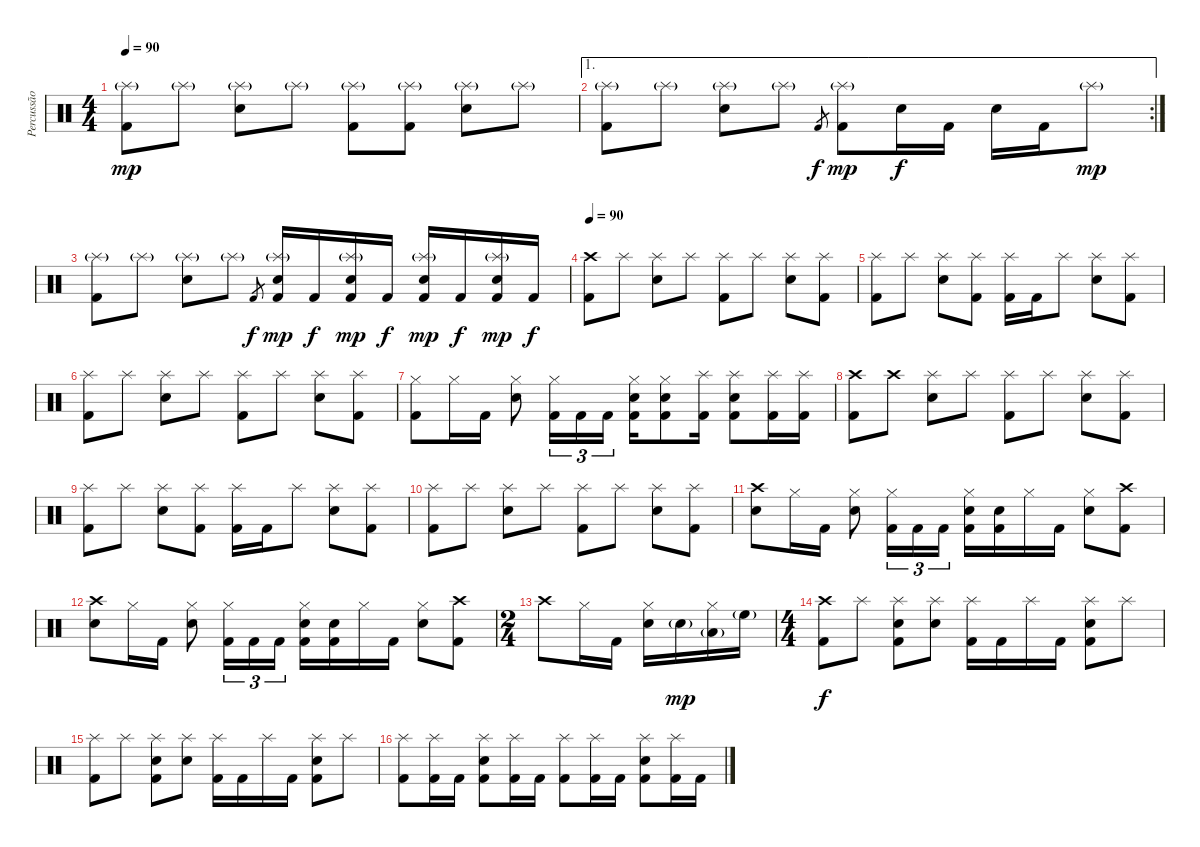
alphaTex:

\track ("Percussão" "Percussão") {instrument percussion}
\staff {score}
\articulation defaults
\ts (4 4)
\tempo 90
\clef neutral
\ks c
("Kick (hit) 2" "Splash (hit)"{g}).8{dy mp} "Splash (hit)"{g}.8 ("Snare (hit) 2" "Splash (hit)"{g}).8 "Splash (hit)"{g}.8 ("Kick (hit) 2" "Splash (hit)"{g}).8 ("Kick (hit) 2" "Splash (hit)"{g}).8 ("Snare (hit) 2" "Splash (hit)"{g}).8 "Splash (hit)"{g}.8 |
\ae 1
\rc 2
("Kick (hit) 2" "Splash (hit)"{g}).8 "Splash (hit)"{g}.8 ("Snare (hit) 2" "Splash (hit)"{g}).8 "Splash (hit)"{g}.8 "Kick (hit) 2".8{gr dy f} ("Kick (hit) 2" "Splash (hit)"{g}).8{dy mp} "Snare (hit) 2".16{dy f} "Kick (hit) 2".16 "Snare (hit) 2".16 "Kick (hit) 2".16 "Splash (hit)"{g}.8{dy mp} |
("Kick (hit) 2" "Splash (hit)"{g}).8 "Splash (hit)"{g}.8 ("Snare (hit) 2" "Splash (hit)"{g}).8 "Splash (hit)"{g}.8 "Kick (hit) 2".8{gr dy f} ("Kick (hit) 2" "Snare (hit) 2" "Splash (hit)"{g}).16{dy mp} "Kick (hit) 2".16{dy f} ("Kick (hit) 2" "Snare (hit) 2" "Splash (hit)"{g}).16{dy mp} "Kick (hit) 2".16{dy f} ("Kick (hit) 2" "Snare (hit) 2" "Splash (hit)"{g}).16{dy mp} "Kick (hit) 2".16{dy f} ("Kick (hit) 2" "Snare (hit) 2" "Splash (hit)"{g}).16{dy mp} "Kick (hit) 2".16{dy f} |
\tempo 90
("Kick (hit) 2" "Crash high (hit)").8 "Splash (hit)".8 ("Snare (hit) 2" "Splash (hit)").8 "Splash (hit)".8 ("Kick (hit) 2" "Splash (hit)").8 "Splash (hit)".8 ("Snare (hit) 2" "Splash (hit)").8 ("Kick (hit) 2" "Splash (hit)").8 |
("Kick (hit) 2" "Splash (hit)").8 "Splash (hit)".8 ("Snare (hit) 2" "Splash (hit)").8 ("Kick (hit) 2" "Splash (hit)").8 ("Kick (hit) 2" "Splash (hit)").16 "Kick (hit) 2".16 "Splash (hit)".8 ("Snare (hit) 2" "Splash (hit)").8 ("Kick (hit) 2" "Splash (hit)").8 |
("Kick (hit) 2" "Splash (hit)").8 "Splash (hit)".8 ("Snare (hit) 2" "Splash (hit)").8 "Splash (hit)".8 ("Kick (hit) 2" "Splash (hit)").8 "Splash (hit)".8 ("Snare (hit) 2" "Splash (hit)").8 ("Kick (hit) 2" "Splash (hit)").8 |
("Kick (hit) 2" "Hi-Hat (closed)").8 "Hi-Hat (closed)".16 "Kick (hit) 2".16 ("Snare (hit) 2" "Hi-Hat (closed)").8 ("Kick (hit) 2" "Hi-Hat (closed)").16{tu (3 2)} "Kick (hit) 2".16{tu (3 2)} "Kick (hit) 2".16{tu (3 2)} ("Kick (hit) 2" "Snare (hit) 2" "Hi-Hat (closed)").16 ("Kick (hit) 2" "Snare (hit) 2" "Hi-Hat (closed)").8 ("Kick (hit) 2" "Splash (hit)").16 ("Kick (hit) 2" "Snare (hit) 2" "Splash (hit)").8 ("Kick (hit) 2" "Splash (hit)").16 ("Kick (hit) 2" "Splash (hit)").16 |
("Kick (hit) 2" "Crash high (hit)").8 "Crash high (hit)".8 ("Snare (hit) 2" "Splash (hit)").8 "Splash (hit)".8 ("Kick (hit) 2" "Splash (hit)").8 "Splash (hit)".8 ("Snare (hit) 2" "Splash (hit)").8 ("Kick (hit) 2" "Splash (hit)").8 |
("Kick (hit) 2" "Splash (hit)").8 "Splash (hit)".8 ("Snare (hit) 2" "Splash (hit)").8 ("Kick (hit) 2" "Splash (hit)").8 ("Kick (hit) 2" "Splash (hit)").16 "Kick (hit) 2".16 "Splash (hit)".8 ("Snare (hit) 2" "Splash (hit)").8 ("Kick (hit) 2" "Splash (hit)").8 |
("Kick (hit) 2" "Splash (hit)").8 "Splash (hit)".8 ("Snare (hit) 2" "Splash (hit)").8 "Splash (hit)".8 ("Kick (hit) 2" "Splash (hit)").8 "Splash (hit)".8 ("Snare (hit) 2" "Splash (hit)").8 ("Kick (hit) 2" "Splash (hit)").8 |
("Snare (hit) 2" "Crash high (hit)").8 "Hi-Hat (closed)".16 "Kick (hit) 2".16 ("Snare (hit) 2" "Hi-Hat (closed)").8 ("Kick (hit) 2" "Hi-Hat (closed)").16{tu (3 2)} "Kick (hit) 2".16{tu (3 2)} "Kick (hit) 2".16{tu (3 2)} ("Kick (hit) 2" "Snare (hit) 2" "Hi-Hat (closed)").16 ("Kick (hit) 2" "Snare (hit) 2").16 "Hi-Hat (closed)".16 "Kick (hit) 2".16 ("Snare (hit) 2" "Hi-Hat (closed)").8 ("Kick (hit) 2" "Crash high (hit)").8 |
("Snare (hit) 2" "Crash high (hit)").8 "Hi-Hat (closed)".16 "Kick (hit) 2".16 ("Snare (hit) 2" "Hi-Hat (closed)").8 ("Kick (hit) 2" "Hi-Hat (closed)").16{tu (3 2)} "Kick (hit) 2".16{tu (3 2)} "Kick (hit) 2".16{tu (3 2)} ("Kick (hit) 2" "Snare (hit) 2" "Hi-Hat (closed)").16 ("Kick (hit) 2" "Snare (hit) 2").16 "Hi-Hat (closed)".16 "Kick (hit) 2".16 ("Snare (hit) 2" "Hi-Hat (closed)").8 ("Kick (hit) 2" "Crash high (hit)").8 |
\ts (2 4)
"Crash high (hit)".8 "Hi-Hat (closed)".16 "Kick (hit) 2".16 ("Snare (hit) 2" "Hi-Hat (closed)").16 "Snare (hit) 2"{g}.16{dy mp} ("Low Tom (hit)"{g} "Hi-Hat (closed)").16 "High Floor Tom (hit)"{g}.16 |
\ts (4 4)
("Kick (hit) 2" "Crash high (hit)").8{dy f} "Splash (hit)".8 ("Kick (hit) 2" "Snare (hit) 2" "Splash (hit)").8 ("Snare (hit) 2" "Splash (hit)").8 ("Kick (hit) 2" "Splash (hit)").16 "Kick (hit) 2".16 "Splash (hit)".16 "Kick (hit) 2".16 ("Kick (hit) 2" "Snare (hit) 2" "Splash (hit)").8 "Splash (hit)".8 |
("Kick (hit) 2" "Splash (hit)").8 "Splash (hit)".8 ("Kick (hit) 2" "Snare (hit) 2" "Splash (hit)").8 ("Snare (hit) 2" "Splash (hit)").8 ("Kick (hit) 2" "Splash (hit)").16 "Kick (hit) 2".16 "Splash (hit)".16 "Kick (hit) 2".16 ("Kick (hit) 2" "Snare (hit) 2" "Splash (hit)").8 "Splash (hit)".8 |
("Kick (hit) 2" "Splash (hit)").8 ("Kick (hit) 2" "Splash (hit)").16 "Kick (hit) 2".16 ("Kick (hit) 2" "Snare (hit) 2" "Splash (hit)").8 ("Kick (hit) 2" "Splash (hit)").16 "Kick (hit) 2".16 ("Kick (hit) 2" "Splash (hit)").8 ("Kick (hit) 2" "Splash (hit)").16 "Kick (hit) 2".16 ("Kick (hit) 2" "Snare (hit) 2" "Splash (hit)").8 ("Kick (hit) 2" "Splash (hit)").16 "Kick (hit) 2".16
